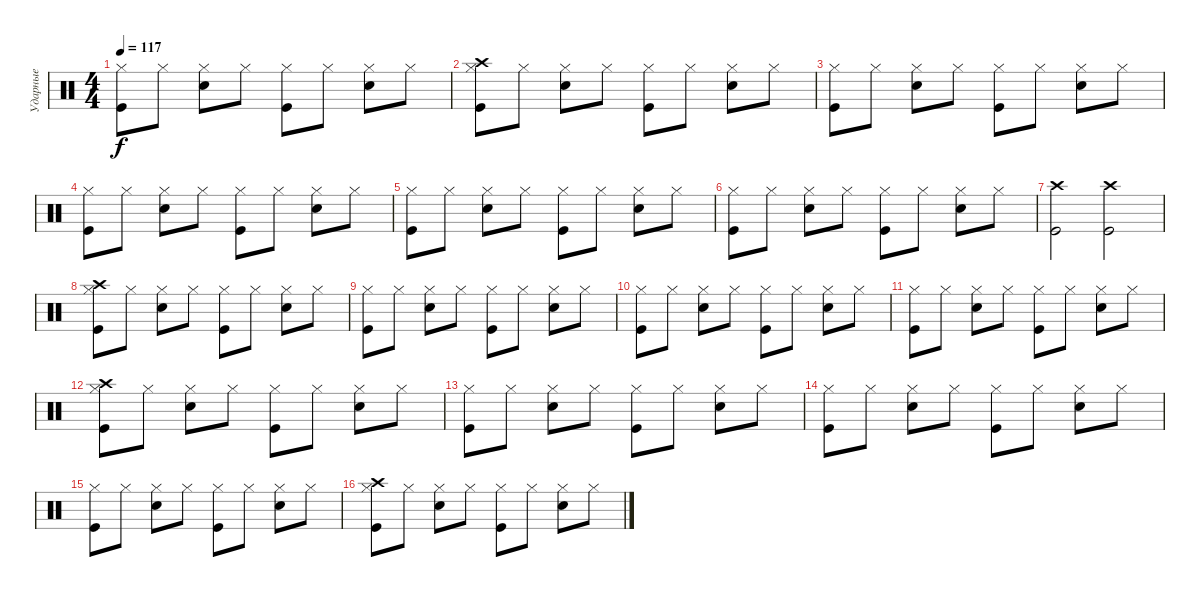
\track ("Ударные" "Ударные") {instrument percussion}
\staff {score}
\articulation defaults
\ts (4 4)
\tempo 117
\clef neutral
\ks c
("Kick (hit)" "Hi-Hat (closed)").8{dy f} "Hi-Hat (closed)".8 ("Hi-Hat (closed)" "Snare (hit) 2").8 "Hi-Hat (closed)".8 ("Kick (hit)" "Hi-Hat (closed)").8 "Hi-Hat (closed)".8 ("Hi-Hat (closed)" "Snare (hit) 2").8 "Hi-Hat (closed)".8 |
("Kick (hit)" "Hi-Hat (closed)" "Crash high (hit)").8 "Hi-Hat (closed)".8 ("Hi-Hat (closed)" "Snare (hit) 2").8 "Hi-Hat (closed)".8 ("Kick (hit)" "Hi-Hat (closed)").8 "Hi-Hat (closed)".8 ("Hi-Hat (closed)" "Snare (hit) 2").8 "Hi-Hat (closed)".8 |
("Kick (hit)" "Hi-Hat (closed)").8 "Hi-Hat (closed)".8 ("Hi-Hat (closed)" "Snare (hit) 2").8 "Hi-Hat (closed)".8 ("Kick (hit)" "Hi-Hat (closed)").8 "Hi-Hat (closed)".8 ("Hi-Hat (closed)" "Snare (hit) 2").8 "Hi-Hat (closed)".8 |
("Kick (hit)" "Hi-Hat (closed)").8 "Hi-Hat (closed)".8 ("Hi-Hat (closed)" "Snare (hit) 2").8 "Hi-Hat (closed)".8 ("Kick (hit)" "Hi-Hat (closed)").8 "Hi-Hat (closed)".8 ("Hi-Hat (closed)" "Snare (hit) 2").8 "Hi-Hat (closed)".8 |
("Kick (hit)" "Hi-Hat (closed)").8 "Hi-Hat (closed)".8 ("Hi-Hat (closed)" "Snare (hit) 2").8 "Hi-Hat (closed)".8 ("Kick (hit)" "Hi-Hat (closed)").8 "Hi-Hat (closed)".8 ("Hi-Hat (closed)" "Snare (hit) 2").8 "Hi-Hat (closed)".8 |
("Kick (hit)" "Hi-Hat (closed)").8 "Hi-Hat (closed)".8 ("Hi-Hat (closed)" "Snare (hit) 2").8 "Hi-Hat (closed)".8 ("Kick (hit)" "Hi-Hat (closed)").8 "Hi-Hat (closed)".8 ("Hi-Hat (closed)" "Snare (hit) 2").8 "Hi-Hat (closed)".8 |
("Kick (hit)" "Crash high (hit)").2 ("Kick (hit)" "Crash high (hit)").2 |
("Kick (hit)" "Hi-Hat (closed)" "Crash high (hit)").8 "Hi-Hat (closed)".8 ("Hi-Hat (closed)" "Snare (hit) 2").8 "Hi-Hat (closed)".8 ("Kick (hit)" "Hi-Hat (closed)").8 "Hi-Hat (closed)".8 ("Hi-Hat (closed)" "Snare (hit) 2").8 "Hi-Hat (closed)".8 |
("Kick (hit)" "Hi-Hat (closed)").8 "Hi-Hat (closed)".8 ("Hi-Hat (closed)" "Snare (hit) 2").8 "Hi-Hat (closed)".8 ("Kick (hit)" "Hi-Hat (closed)").8 "Hi-Hat (closed)".8 ("Hi-Hat (closed)" "Snare (hit) 2").8 "Hi-Hat (closed)".8 |
("Kick (hit)" "Hi-Hat (closed)").8 "Hi-Hat (closed)".8 ("Hi-Hat (closed)" "Snare (hit) 2").8 "Hi-Hat (closed)".8 ("Kick (hit)" "Hi-Hat (closed)").8 "Hi-Hat (closed)".8 ("Hi-Hat (closed)" "Snare (hit) 2").8 "Hi-Hat (closed)".8 |
("Kick (hit)" "Hi-Hat (closed)").8 "Hi-Hat (closed)".8 ("Hi-Hat (closed)" "Snare (hit) 2").8 "Hi-Hat (closed)".8 ("Kick (hit)" "Hi-Hat (closed)").8 "Hi-Hat (closed)".8 ("Hi-Hat (closed)" "Snare (hit) 2").8 "Hi-Hat (closed)".8 |
("Kick (hit)" "Hi-Hat (closed)" "Crash high (hit)").8 "Hi-Hat (closed)".8 ("Hi-Hat (closed)" "Snare (hit) 2").8 "Hi-Hat (closed)".8 ("Kick (hit)" "Hi-Hat (closed)").8 "Hi-Hat (closed)".8 ("Hi-Hat (closed)" "Snare (hit) 2").8 "Hi-Hat (closed)".8 |
("Kick (hit)" "Hi-Hat (closed)").8 "Hi-Hat (closed)".8 ("Hi-Hat (closed)" "Snare (hit) 2").8 "Hi-Hat (closed)".8 ("Kick (hit)" "Hi-Hat (closed)").8 "Hi-Hat (closed)".8 ("Hi-Hat (closed)" "Snare (hit) 2").8 "Hi-Hat (closed)".8 |
("Kick (hit)" "Hi-Hat (closed)").8 "Hi-Hat (closed)".8 ("Hi-Hat (closed)" "Snare (hit) 2").8 "Hi-Hat (closed)".8 ("Kick (hit)" "Hi-Hat (closed)").8 "Hi-Hat (closed)".8 ("Hi-Hat (closed)" "Snare (hit) 2").8 "Hi-Hat (closed)".8 |
("Kick (hit)" "Hi-Hat (closed)").8 "Hi-Hat (closed)".8 ("Hi-Hat (closed)" "Snare (hit) 2").8 "Hi-Hat (closed)".8 ("Kick (hit)" "Hi-Hat (closed)").8 "Hi-Hat (closed)".8 ("Hi-Hat (closed)" "Snare (hit) 2").8 "Hi-Hat (closed)".8 |
("Kick (hit)" "Hi-Hat (closed)" "Crash high (hit)").8 "Hi-Hat (closed)".8 ("Hi-Hat (closed)" "Snare (hit) 2").8 "Hi-Hat (closed)".8 ("Kick (hit)" "Hi-Hat (closed)").8 "Hi-Hat (closed)".8 ("Hi-Hat (closed)" "Snare (hit) 2").8 "Hi-Hat (closed)".8
